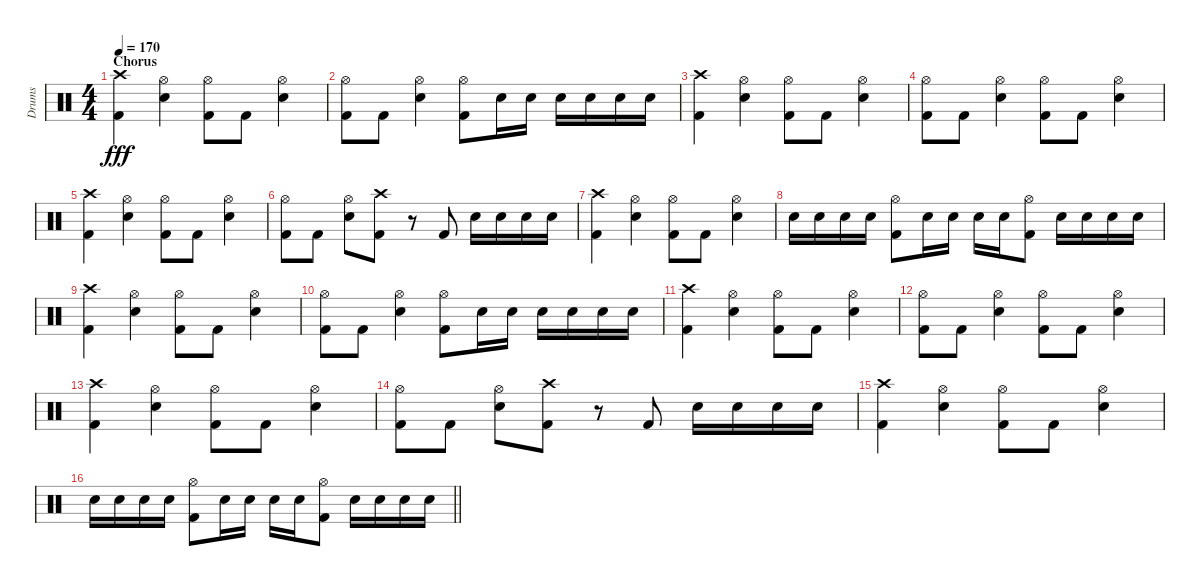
\track ("Drums" "Drums") {instrument percussion}
\staff {score}
\articulation defaults
\ts (4 4)
\section ("" "Chorus")
\tempo 170
\clef neutral
\ks c
("Crash high (hit)" "Kick (hit) 2").4{dy fff} ("Hi-Hat (open)" "Snare (hit) 2").4 ("Hi-Hat (open)" "Kick (hit) 2").8 "Kick (hit) 2".8 ("Hi-Hat (open)" "Snare (hit) 2").4 |
("Hi-Hat (open)" "Kick (hit) 2").8 "Kick (hit) 2".8 ("Hi-Hat (open)" "Snare (hit) 2").4 ("Hi-Hat (open)" "Kick (hit) 2").8 "Snare (hit) 2".16 "Snare (hit) 2".16 "Snare (hit) 2".16 "Snare (hit) 2".16 "Snare (hit) 2".16 "Snare (hit) 2".16 |
("Crash high (hit)" "Kick (hit) 2").4 ("Hi-Hat (open)" "Snare (hit) 2").4 ("Hi-Hat (open)" "Kick (hit) 2").8 "Kick (hit) 2".8 ("Hi-Hat (open)" "Snare (hit) 2").4 |
("Hi-Hat (open)" "Kick (hit) 2").8 "Kick (hit) 2".8 ("Hi-Hat (open)" "Snare (hit) 2").4 ("Hi-Hat (open)" "Kick (hit) 2").8 "Kick (hit) 2".8 ("Hi-Hat (open)" "Snare (hit) 2").4 |
("Crash high (hit)" "Kick (hit) 2").4 ("Hi-Hat (open)" "Snare (hit) 2").4 ("Hi-Hat (open)" "Kick (hit) 2").8 "Kick (hit) 2".8 ("Hi-Hat (open)" "Snare (hit) 2").4 |
("Hi-Hat (open)" "Kick (hit) 2").8 "Kick (hit) 2".8 ("Hi-Hat (open)" "Snare (hit) 2").8 ("Crash high (hit)" "Kick (hit) 2").8 r.8 "Kick (hit) 2".8 "Snare (hit) 2".16 "Snare (hit) 2".16 "Snare (hit) 2".16 "Snare (hit) 2".16 |
("Crash high (hit)" "Kick (hit) 2").4 ("Hi-Hat (open)" "Snare (hit) 2").4 ("Hi-Hat (open)" "Kick (hit) 2").8 "Kick (hit) 2".8 ("Hi-Hat (open)" "Snare (hit) 2").4 |
"Snare (hit) 2".16 "Snare (hit) 2".16 "Snare (hit) 2".16 "Snare (hit) 2".16 ("Hi-Hat (open)" "Kick (hit) 2").8 "Snare (hit) 2".16 "Snare (hit) 2".16 "Snare (hit) 2".16 "Snare (hit) 2".16 ("Hi-Hat (open)" "Kick (hit) 2").8 "Snare (hit) 2".16 "Snare (hit) 2".16 "Snare (hit) 2".16 "Snare (hit) 2".16 |
("Crash high (hit)" "Kick (hit) 2").4 ("Hi-Hat (open)" "Snare (hit) 2").4 ("Hi-Hat (open)" "Kick (hit) 2").8 "Kick (hit) 2".8 ("Hi-Hat (open)" "Snare (hit) 2").4 |
("Hi-Hat (open)" "Kick (hit) 2").8 "Kick (hit) 2".8 ("Hi-Hat (open)" "Snare (hit) 2").4 ("Hi-Hat (open)" "Kick (hit) 2").8 "Snare (hit) 2".16 "Snare (hit) 2".16 "Snare (hit) 2".16 "Snare (hit) 2".16 "Snare (hit) 2".16 "Snare (hit) 2".16 |
("Crash high (hit)" "Kick (hit) 2").4 ("Hi-Hat (open)" "Snare (hit) 2").4 ("Hi-Hat (open)" "Kick (hit) 2").8 "Kick (hit) 2".8 ("Hi-Hat (open)" "Snare (hit) 2").4 |
("Hi-Hat (open)" "Kick (hit) 2").8 "Kick (hit) 2".8 ("Hi-Hat (open)" "Snare (hit) 2").4 ("Hi-Hat (open)" "Kick (hit) 2").8 "Kick (hit) 2".8 ("Hi-Hat (open)" "Snare (hit) 2").4 |
("Crash high (hit)" "Kick (hit) 2").4 ("Hi-Hat (open)" "Snare (hit) 2").4 ("Hi-Hat (open)" "Kick (hit) 2").8 "Kick (hit) 2".8 ("Hi-Hat (open)" "Snare (hit) 2").4 |
("Hi-Hat (open)" "Kick (hit) 2").8 "Kick (hit) 2".8 ("Hi-Hat (open)" "Snare (hit) 2").8 ("Crash high (hit)" "Kick (hit) 2").8 r.8 "Kick (hit) 2".8 "Snare (hit) 2".16 "Snare (hit) 2".16 "Snare (hit) 2".16 "Snare (hit) 2".16 |
("Crash high (hit)" "Kick (hit) 2").4 ("Hi-Hat (open)" "Snare (hit) 2").4 ("Hi-Hat (open)" "Kick (hit) 2").8 "Kick (hit) 2".8 ("Hi-Hat (open)" "Snare (hit) 2").4 |
\barLineRight lightlight "Snare (hit) 2".16 "Snare (hit) 2".16 "Snare (hit) 2".16 "Snare (hit) 2".16
("Hi-Hat (open)" "Kick (hit) 2").8 "Snare (hit) 2".16 "Snare (hit) 2".16 "Snare (hit) 2".16 "Snare (hit) 2".16 ("Hi-Hat (open)" "Kick (hit) 2").8 "Snare (hit) 2".16 "Snare (hit) 2".16 "Snare (hit) 2".16 "Snare (hit) 2".16
